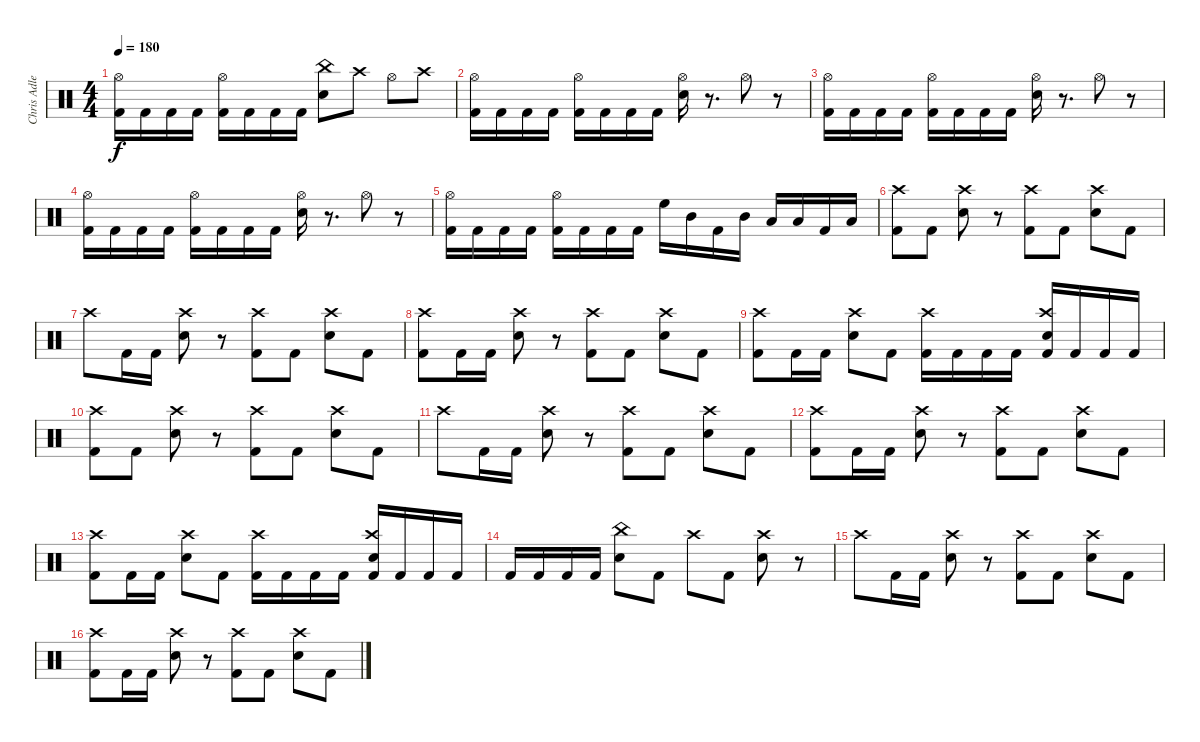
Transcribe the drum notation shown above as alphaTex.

\track ("Chris Adler" "Chris Adle") {instrument percussion}
\staff {score}
\articulation defaults
\ts (4 4)
\tempo 180
\clef neutral
\ks c
("Hi-Hat (open)" "Kick (hit) 2").16{dy f} "Kick (hit) 2".16 "Kick (hit) 2".16 "Kick (hit) 2".16 ("Hi-Hat (open)" "Kick (hit) 2").16 "Kick (hit) 2".16 "Kick (hit) 2".16 "Kick (hit) 2".16 ("China (hit)" "Electric Snare (hit)").8 "Crash high (hit)".8 "Hi-Hat (open)".8 "Crash high (hit)".8 |
("Hi-Hat (open)" "Kick (hit) 2").16 "Kick (hit) 2".16 "Kick (hit) 2".16 "Kick (hit) 2".16 ("Hi-Hat (open)" "Kick (hit) 2").16 "Kick (hit) 2".16 "Kick (hit) 2".16 "Kick (hit) 2".16 ("Hi-Hat (open)" "Electric Snare (hit)").16 r.8{d} "Hi-Hat (open)".8 r.8 |
("Hi-Hat (open)" "Kick (hit) 2").16 "Kick (hit) 2".16 "Kick (hit) 2".16 "Kick (hit) 2".16 ("Hi-Hat (open)" "Kick (hit) 2").16 "Kick (hit) 2".16 "Kick (hit) 2".16 "Kick (hit) 2".16 ("Hi-Hat (open)" "Electric Snare (hit)").16 r.8{d} "Hi-Hat (open)".8 r.8 |
("Hi-Hat (open)" "Kick (hit) 2").16 "Kick (hit) 2".16 "Kick (hit) 2".16 "Kick (hit) 2".16 ("Hi-Hat (open)" "Kick (hit) 2").16 "Kick (hit) 2".16 "Kick (hit) 2".16 "Kick (hit) 2".16 ("Hi-Hat (open)" "Electric Snare (hit)").16 r.8{d} "Hi-Hat (open)".8 r.8 |
("Hi-Hat (open)" "Kick (hit) 2").16 "Kick (hit) 2".16 "Kick (hit) 2".16 "Kick (hit) 2".16 ("Hi-Hat (open)" "Kick (hit) 2").16 "Kick (hit) 2".16 "Kick (hit) 2".16 "Kick (hit) 2".16 "High Floor Tom (hit)".16 "Mid Tom (hit)".16 "Kick (hit) 2".16 "Mid Tom (hit)".16 "Low Tom (hit)".16 "Low Floor Tom (hit)".16 "Kick (hit) 2".16 "Low Tom (hit)".16 |
("Crash high (hit)" "Kick (hit) 2").8 "Kick (hit) 2".8 ("Crash high (hit)" "Snare (hit) 2").8 r.8 ("Crash high (hit)" "Kick (hit) 2").8 "Kick (hit) 2".8 ("Crash high (hit)" "Snare (hit) 2").8 "Kick (hit) 2".8 |
"Crash high (hit)".8 "Kick (hit) 2".16 "Kick (hit) 2".16 ("Crash high (hit)" "Snare (hit) 2").8 r.8 ("Crash high (hit)" "Kick (hit) 2").8 "Kick (hit) 2".8 ("Crash high (hit)" "Snare (hit) 2").8 "Kick (hit) 2".8 |
("Crash high (hit)" "Kick (hit) 2").8 "Kick (hit) 2".16 "Kick (hit) 2".16 ("Crash high (hit)" "Snare (hit) 2").8 r.8 ("Crash high (hit)" "Kick (hit) 2").8 "Kick (hit) 2".8 ("Crash high (hit)" "Snare (hit) 2").8 "Kick (hit) 2".8 |
("Crash high (hit)" "Kick (hit) 2").8 "Kick (hit) 2".16 "Kick (hit) 2".16 ("Crash high (hit)" "Snare (hit) 2").8 "Kick (hit) 2".8 ("Crash high (hit)" "Kick (hit) 2").16 "Kick (hit) 2".16 "Kick (hit) 2".16 "Kick (hit) 2".16 ("Crash high (hit)" "Snare (hit) 2" "Kick (hit) 2").16 "Kick (hit) 2".16 "Kick (hit) 2".16 "Kick (hit) 2".16 |
("Crash high (hit)" "Kick (hit) 2").8 "Kick (hit) 2".8 ("Crash high (hit)" "Snare (hit) 2").8 r.8 ("Crash high (hit)" "Kick (hit) 2").8 "Kick (hit) 2".8 ("Crash high (hit)" "Snare (hit) 2").8 "Kick (hit) 2".8 |
"Crash high (hit)".8 "Kick (hit) 2".16 "Kick (hit) 2".16 ("Crash high (hit)" "Snare (hit) 2").8 r.8 ("Crash high (hit)" "Kick (hit) 2").8 "Kick (hit) 2".8 ("Crash high (hit)" "Snare (hit) 2").8 "Kick (hit) 2".8 |
("Crash high (hit)" "Kick (hit) 2").8 "Kick (hit) 2".16 "Kick (hit) 2".16 ("Crash high (hit)" "Snare (hit) 2").8 r.8 ("Crash high (hit)" "Kick (hit) 2").8 "Kick (hit) 2".8 ("Crash high (hit)" "Snare (hit) 2").8 "Kick (hit) 2".8 |
("Crash high (hit)" "Kick (hit) 2").8 "Kick (hit) 2".16 "Kick (hit) 2".16 ("Crash high (hit)" "Snare (hit) 2").8 "Kick (hit) 2".8 ("Crash high (hit)" "Kick (hit) 2").16 "Kick (hit) 2".16 "Kick (hit) 2".16 "Kick (hit) 2".16 ("Crash high (hit)" "Snare (hit) 2" "Kick (hit) 2").16 "Kick (hit) 2".16 "Kick (hit) 2".16 "Kick (hit) 2".16 |
"Kick (hit) 2".16 "Kick (hit) 2".16 "Kick (hit) 2".16 "Kick (hit) 2".16 ("China (hit)" "Snare (hit) 2").8 "Kick (hit) 2".8 "Crash high (hit)".8 "Kick (hit) 2".8 ("Crash high (hit)" "Snare (hit) 2").8 r.8 |
"Crash high (hit)".8 "Kick (hit) 2".16 "Kick (hit) 2".16 ("Crash high (hit)" "Snare (hit) 2").8 r.8 ("Crash high (hit)" "Kick (hit) 2").8 "Kick (hit) 2".8 ("Crash high (hit)" "Snare (hit) 2").8 "Kick (hit) 2".8 |
("Crash high (hit)" "Kick (hit) 2").8 "Kick (hit) 2".16 "Kick (hit) 2".16 ("Crash high (hit)" "Snare (hit) 2").8 r.8 ("Crash high (hit)" "Kick (hit) 2").8 "Kick (hit) 2".8 ("Crash high (hit)" "Snare (hit) 2").8 "Kick (hit) 2".8
